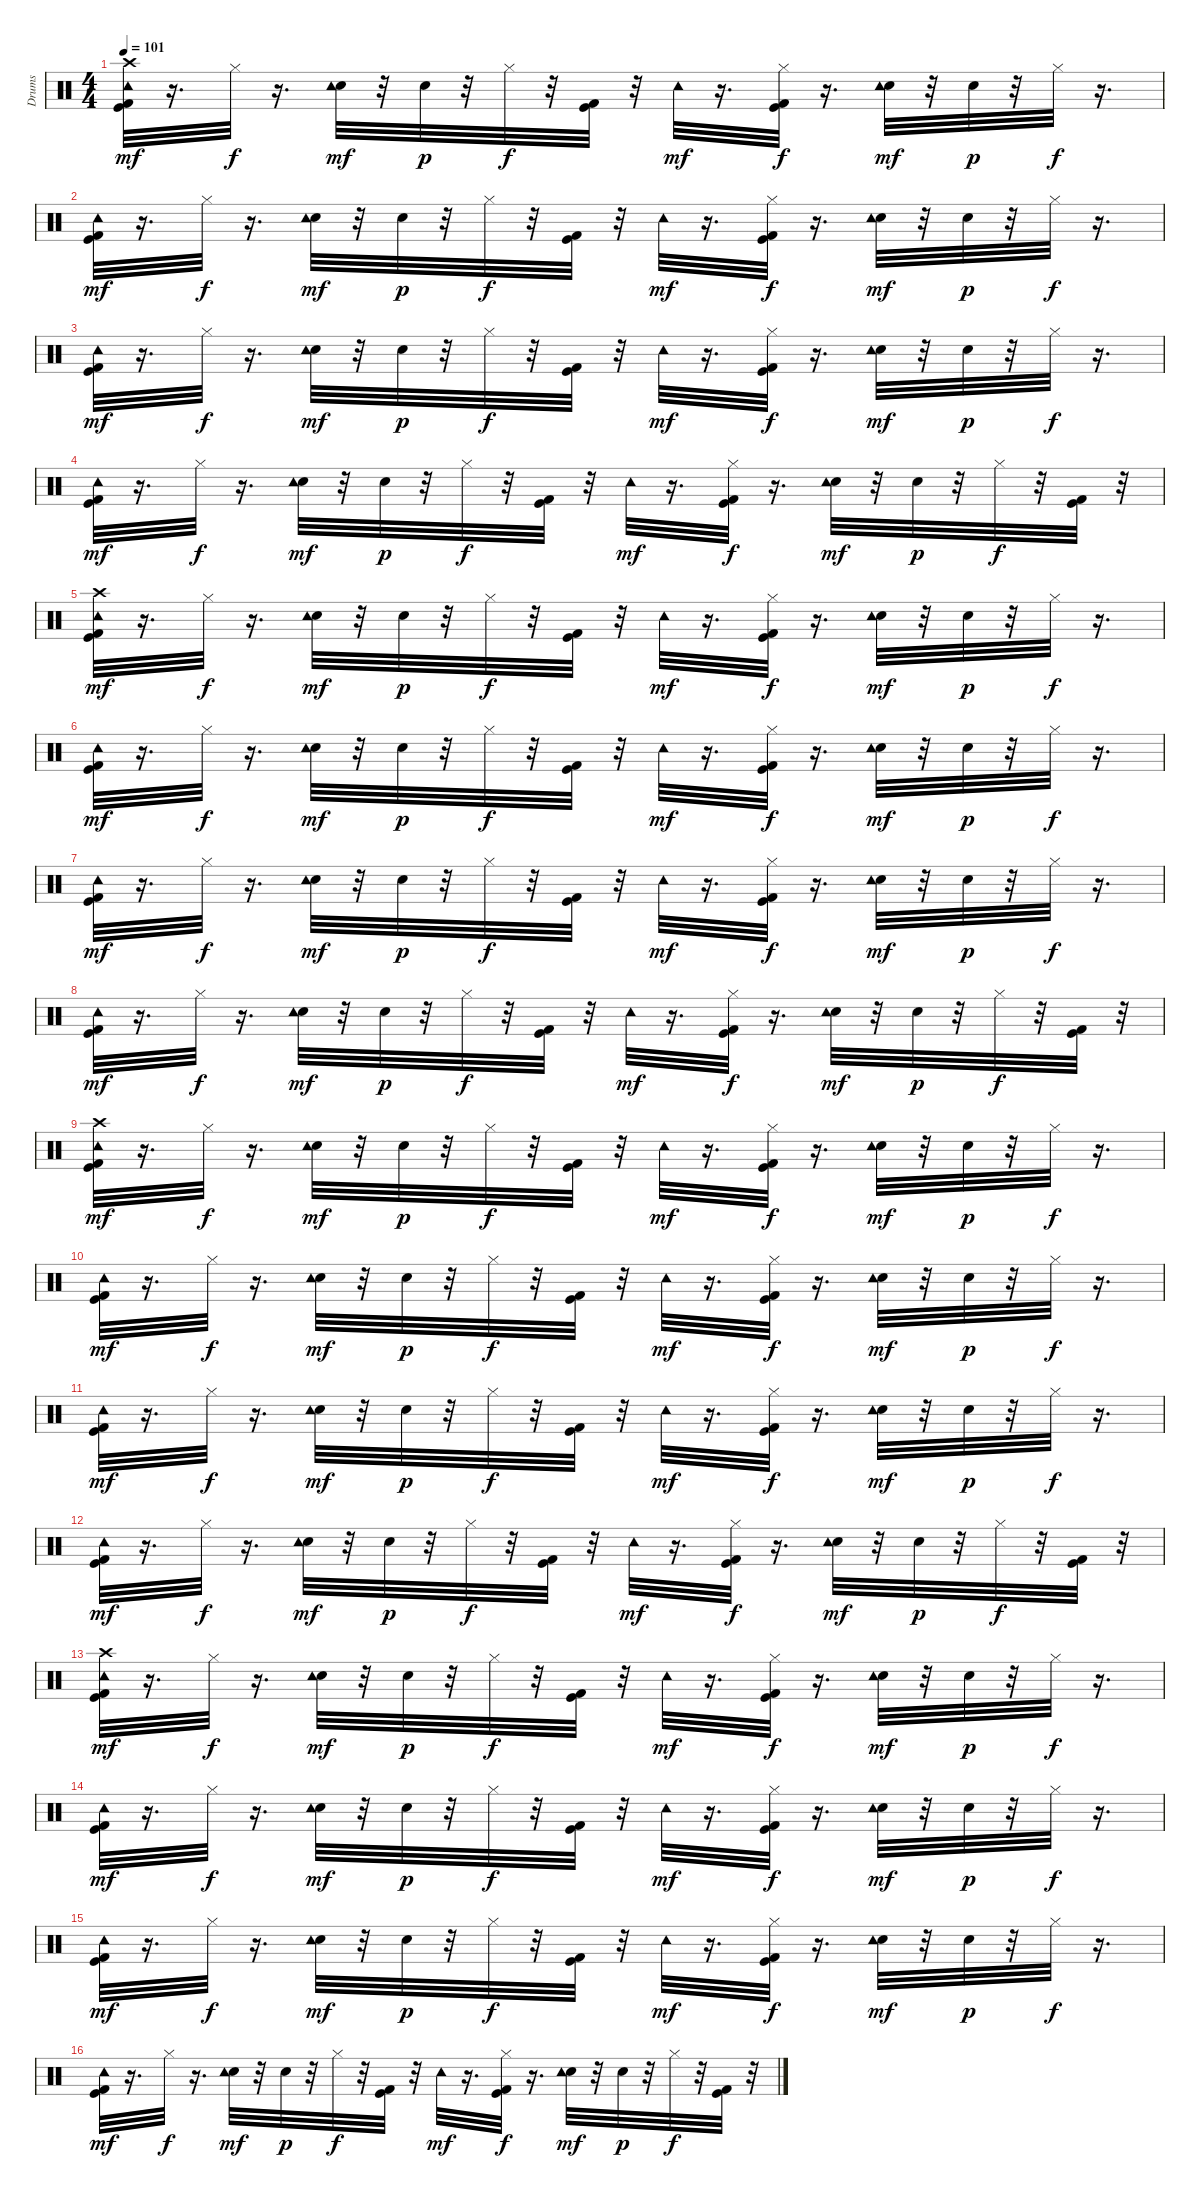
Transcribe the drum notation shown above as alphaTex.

\track ("Drums" "Drums") {instrument percussion}
\staff {score}
\articulation defaults
\ts (4 4)
\tempo 101
\clef neutral
\ks c
("Kick (hit)" "Kick (hit) 2" "Crash high (hit)" "Tambourine (hit)").32{dy mf} r.16{d} "Hi-Hat (closed)".32{dy f} r.16{d} ("Hand Clap (hit)" "Tambourine (hit)").32{dy mf} r.32 "Hand Clap (hit)".32{dy p} r.32 "Hi-Hat (closed)".32{dy f} r.32 ("Kick (hit)" "Kick (hit) 2").32 r.32 "Tambourine (hit)".32{dy mf} r.16{d} ("Kick (hit)" "Kick (hit) 2" "Hi-Hat (closed)").32{dy f} r.16{d} ("Hand Clap (hit)" "Tambourine (hit)").32{dy mf} r.32 "Hand Clap (hit)".32{dy p} r.32 "Hi-Hat (closed)".32{dy f} r.16{d} |
("Kick (hit)" "Kick (hit) 2" "Tambourine (hit)").32{dy mf} r.16{d} "Hi-Hat (closed)".32{dy f} r.16{d} ("Hand Clap (hit)" "Tambourine (hit)").32{dy mf} r.32 "Hand Clap (hit)".32{dy p} r.32 "Hi-Hat (closed)".32{dy f} r.32 ("Kick (hit)" "Kick (hit) 2").32 r.32 "Tambourine (hit)".32{dy mf} r.16{d} ("Kick (hit)" "Kick (hit) 2" "Hi-Hat (closed)").32{dy f} r.16{d} ("Hand Clap (hit)" "Tambourine (hit)").32{dy mf} r.32 "Hand Clap (hit)".32{dy p} r.32 "Hi-Hat (closed)".32{dy f} r.16{d} |
("Kick (hit)" "Kick (hit) 2" "Tambourine (hit)").32{dy mf} r.16{d} "Hi-Hat (closed)".32{dy f} r.16{d} ("Hand Clap (hit)" "Tambourine (hit)").32{dy mf} r.32 "Hand Clap (hit)".32{dy p} r.32 "Hi-Hat (closed)".32{dy f} r.32 ("Kick (hit)" "Kick (hit) 2").32 r.32 "Tambourine (hit)".32{dy mf} r.16{d} ("Kick (hit)" "Kick (hit) 2" "Hi-Hat (closed)").32{dy f} r.16{d} ("Hand Clap (hit)" "Tambourine (hit)").32{dy mf} r.32 "Hand Clap (hit)".32{dy p} r.32 "Hi-Hat (closed)".32{dy f} r.16{d} |
("Kick (hit)" "Kick (hit) 2" "Tambourine (hit)").32{dy mf} r.16{d} "Hi-Hat (closed)".32{dy f} r.16{d} ("Hand Clap (hit)" "Tambourine (hit)").32{dy mf} r.32 "Hand Clap (hit)".32{dy p} r.32 "Hi-Hat (closed)".32{dy f} r.32 ("Kick (hit)" "Kick (hit) 2").32 r.32 "Tambourine (hit)".32{dy mf} r.16{d} ("Kick (hit)" "Kick (hit) 2" "Hi-Hat (closed)").32{dy f} r.16{d} ("Hand Clap (hit)" "Tambourine (hit)").32{dy mf} r.32 "Hand Clap (hit)".32{dy p} r.32 "Hi-Hat (closed)".32{dy f} r.32 ("Kick (hit)" "Kick (hit) 2").32 r.32 |
("Kick (hit)" "Kick (hit) 2" "Crash high (hit)" "Tambourine (hit)").32{dy mf} r.16{d} "Hi-Hat (closed)".32{dy f} r.16{d} ("Hand Clap (hit)" "Tambourine (hit)").32{dy mf} r.32 "Hand Clap (hit)".32{dy p} r.32 "Hi-Hat (closed)".32{dy f} r.32 ("Kick (hit)" "Kick (hit) 2").32 r.32 "Tambourine (hit)".32{dy mf} r.16{d} ("Kick (hit)" "Kick (hit) 2" "Hi-Hat (closed)").32{dy f} r.16{d} ("Hand Clap (hit)" "Tambourine (hit)").32{dy mf} r.32 "Hand Clap (hit)".32{dy p} r.32 "Hi-Hat (closed)".32{dy f} r.16{d} |
("Kick (hit)" "Kick (hit) 2" "Tambourine (hit)").32{dy mf} r.16{d} "Hi-Hat (closed)".32{dy f} r.16{d} ("Hand Clap (hit)" "Tambourine (hit)").32{dy mf} r.32 "Hand Clap (hit)".32{dy p} r.32 "Hi-Hat (closed)".32{dy f} r.32 ("Kick (hit)" "Kick (hit) 2").32 r.32 "Tambourine (hit)".32{dy mf} r.16{d} ("Kick (hit)" "Kick (hit) 2" "Hi-Hat (closed)").32{dy f} r.16{d} ("Hand Clap (hit)" "Tambourine (hit)").32{dy mf} r.32 "Hand Clap (hit)".32{dy p} r.32 "Hi-Hat (closed)".32{dy f} r.16{d} |
("Kick (hit)" "Kick (hit) 2" "Tambourine (hit)").32{dy mf} r.16{d} "Hi-Hat (closed)".32{dy f} r.16{d} ("Hand Clap (hit)" "Tambourine (hit)").32{dy mf} r.32 "Hand Clap (hit)".32{dy p} r.32 "Hi-Hat (closed)".32{dy f} r.32 ("Kick (hit)" "Kick (hit) 2").32 r.32 "Tambourine (hit)".32{dy mf} r.16{d} ("Kick (hit)" "Kick (hit) 2" "Hi-Hat (closed)").32{dy f} r.16{d} ("Hand Clap (hit)" "Tambourine (hit)").32{dy mf} r.32 "Hand Clap (hit)".32{dy p} r.32 "Hi-Hat (closed)".32{dy f} r.16{d} |
("Kick (hit)" "Kick (hit) 2" "Tambourine (hit)").32{dy mf} r.16{d} "Hi-Hat (closed)".32{dy f} r.16{d} ("Hand Clap (hit)" "Tambourine (hit)").32{dy mf} r.32 "Hand Clap (hit)".32{dy p} r.32 "Hi-Hat (closed)".32{dy f} r.32 ("Kick (hit)" "Kick (hit) 2").32 r.32 "Tambourine (hit)".32{dy mf} r.16{d} ("Kick (hit)" "Kick (hit) 2" "Hi-Hat (closed)").32{dy f} r.16{d} ("Hand Clap (hit)" "Tambourine (hit)").32{dy mf} r.32 "Hand Clap (hit)".32{dy p} r.32 "Hi-Hat (closed)".32{dy f} r.32 ("Kick (hit)" "Kick (hit) 2").32 r.32 |
("Kick (hit)" "Kick (hit) 2" "Crash high (hit)" "Tambourine (hit)").32{dy mf} r.16{d} "Hi-Hat (closed)".32{dy f} r.16{d} ("Hand Clap (hit)" "Tambourine (hit)").32{dy mf} r.32 "Hand Clap (hit)".32{dy p} r.32 "Hi-Hat (closed)".32{dy f} r.32 ("Kick (hit)" "Kick (hit) 2").32 r.32 "Tambourine (hit)".32{dy mf} r.16{d} ("Kick (hit)" "Kick (hit) 2" "Hi-Hat (closed)").32{dy f} r.16{d} ("Hand Clap (hit)" "Tambourine (hit)").32{dy mf} r.32 "Hand Clap (hit)".32{dy p} r.32 "Hi-Hat (closed)".32{dy f} r.16{d} |
("Kick (hit)" "Kick (hit) 2" "Tambourine (hit)").32{dy mf} r.16{d} "Hi-Hat (closed)".32{dy f} r.16{d} ("Hand Clap (hit)" "Tambourine (hit)").32{dy mf} r.32 "Hand Clap (hit)".32{dy p} r.32 "Hi-Hat (closed)".32{dy f} r.32 ("Kick (hit)" "Kick (hit) 2").32 r.32 "Tambourine (hit)".32{dy mf} r.16{d} ("Kick (hit)" "Kick (hit) 2" "Hi-Hat (closed)").32{dy f} r.16{d} ("Hand Clap (hit)" "Tambourine (hit)").32{dy mf} r.32 "Hand Clap (hit)".32{dy p} r.32 "Hi-Hat (closed)".32{dy f} r.16{d} |
("Kick (hit)" "Kick (hit) 2" "Tambourine (hit)").32{dy mf} r.16{d} "Hi-Hat (closed)".32{dy f} r.16{d} ("Hand Clap (hit)" "Tambourine (hit)").32{dy mf} r.32 "Hand Clap (hit)".32{dy p} r.32 "Hi-Hat (closed)".32{dy f} r.32 ("Kick (hit)" "Kick (hit) 2").32 r.32 "Tambourine (hit)".32{dy mf} r.16{d} ("Kick (hit)" "Kick (hit) 2" "Hi-Hat (closed)").32{dy f} r.16{d} ("Hand Clap (hit)" "Tambourine (hit)").32{dy mf} r.32 "Hand Clap (hit)".32{dy p} r.32 "Hi-Hat (closed)".32{dy f} r.16{d} |
("Kick (hit)" "Kick (hit) 2" "Tambourine (hit)").32{dy mf} r.16{d} "Hi-Hat (closed)".32{dy f} r.16{d} ("Hand Clap (hit)" "Tambourine (hit)").32{dy mf} r.32 "Hand Clap (hit)".32{dy p} r.32 "Hi-Hat (closed)".32{dy f} r.32 ("Kick (hit)" "Kick (hit) 2").32 r.32 "Tambourine (hit)".32{dy mf} r.16{d} ("Kick (hit)" "Kick (hit) 2" "Hi-Hat (closed)").32{dy f} r.16{d} ("Hand Clap (hit)" "Tambourine (hit)").32{dy mf} r.32 "Hand Clap (hit)".32{dy p} r.32 "Hi-Hat (closed)".32{dy f} r.32 ("Kick (hit)" "Kick (hit) 2").32 r.32 |
("Kick (hit)" "Kick (hit) 2" "Crash high (hit)" "Tambourine (hit)").32{dy mf} r.16{d} "Hi-Hat (closed)".32{dy f} r.16{d} ("Hand Clap (hit)" "Tambourine (hit)").32{dy mf} r.32 "Hand Clap (hit)".32{dy p} r.32 "Hi-Hat (closed)".32{dy f} r.32 ("Kick (hit)" "Kick (hit) 2").32 r.32 "Tambourine (hit)".32{dy mf} r.16{d} ("Kick (hit)" "Kick (hit) 2" "Hi-Hat (closed)").32{dy f} r.16{d} ("Hand Clap (hit)" "Tambourine (hit)").32{dy mf} r.32 "Hand Clap (hit)".32{dy p} r.32 "Hi-Hat (closed)".32{dy f} r.16{d} |
("Kick (hit)" "Kick (hit) 2" "Tambourine (hit)").32{dy mf} r.16{d} "Hi-Hat (closed)".32{dy f} r.16{d} ("Hand Clap (hit)" "Tambourine (hit)").32{dy mf} r.32 "Hand Clap (hit)".32{dy p} r.32 "Hi-Hat (closed)".32{dy f} r.32 ("Kick (hit)" "Kick (hit) 2").32 r.32 "Tambourine (hit)".32{dy mf} r.16{d} ("Kick (hit)" "Kick (hit) 2" "Hi-Hat (closed)").32{dy f} r.16{d} ("Hand Clap (hit)" "Tambourine (hit)").32{dy mf} r.32 "Hand Clap (hit)".32{dy p} r.32 "Hi-Hat (closed)".32{dy f} r.16{d} |
("Kick (hit)" "Kick (hit) 2" "Tambourine (hit)").32{dy mf} r.16{d} "Hi-Hat (closed)".32{dy f} r.16{d} ("Hand Clap (hit)" "Tambourine (hit)").32{dy mf} r.32 "Hand Clap (hit)".32{dy p} r.32 "Hi-Hat (closed)".32{dy f} r.32 ("Kick (hit)" "Kick (hit) 2").32 r.32 "Tambourine (hit)".32{dy mf} r.16{d} ("Kick (hit)" "Kick (hit) 2" "Hi-Hat (closed)").32{dy f} r.16{d} ("Hand Clap (hit)" "Tambourine (hit)").32{dy mf} r.32 "Hand Clap (hit)".32{dy p} r.32 "Hi-Hat (closed)".32{dy f} r.16{d} |
("Kick (hit)" "Kick (hit) 2" "Tambourine (hit)").32{dy mf} r.16{d} "Hi-Hat (closed)".32{dy f} r.16{d} ("Hand Clap (hit)" "Tambourine (hit)").32{dy mf} r.32 "Hand Clap (hit)".32{dy p} r.32 "Hi-Hat (closed)".32{dy f} r.32 ("Kick (hit)" "Kick (hit) 2").32 r.32 "Tambourine (hit)".32{dy mf} r.16{d} ("Kick (hit)" "Kick (hit) 2" "Hi-Hat (closed)").32{dy f} r.16{d} ("Hand Clap (hit)" "Tambourine (hit)").32{dy mf} r.32 "Hand Clap (hit)".32{dy p} r.32 "Hi-Hat (closed)".32{dy f} r.32 ("Kick (hit)" "Kick (hit) 2").32 r.32
